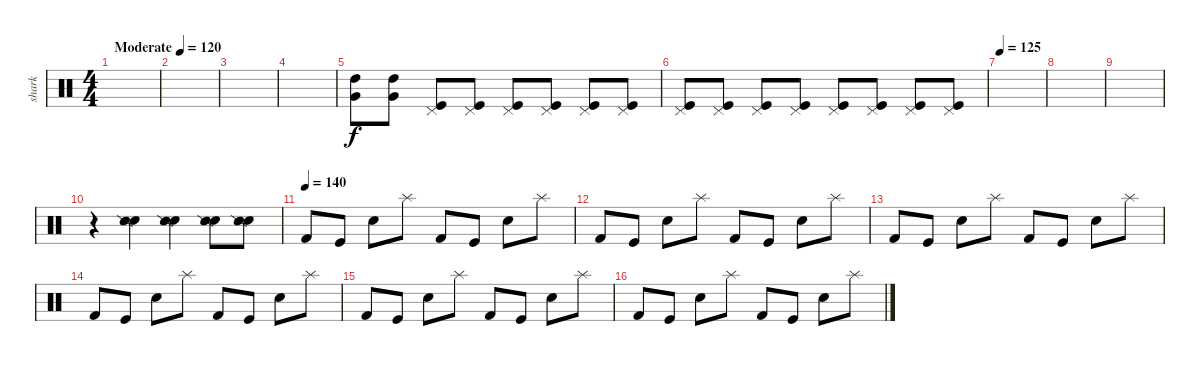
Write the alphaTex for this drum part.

\track ("shark" "shark") {instrument percussion}
\staff {score}
\articulation defaults
\ts (4 4)
\tempo (120 "Moderate")
\clef neutral
\ks c
|
|
|
|
("High Tom (hit)" "Very Low Tom (hit)").8 ("High Tom (hit)" "Very Low Tom (hit)").8 ("Kick (hit)" "Pedal Hi-Hat (hit)").8 ("Kick (hit)" "Pedal Hi-Hat (hit)").8 ("Kick (hit)" "Pedal Hi-Hat (hit)").8 ("Kick (hit)" "Pedal Hi-Hat (hit)").8 ("Kick (hit)" "Pedal Hi-Hat (hit)").8 ("Kick (hit)" "Pedal Hi-Hat (hit)").8 |
("Kick (hit)" "Pedal Hi-Hat (hit)").8 ("Kick (hit)" "Pedal Hi-Hat (hit)").8 ("Kick (hit)" "Pedal Hi-Hat (hit)").8 ("Kick (hit)" "Pedal Hi-Hat (hit)").8 ("Kick (hit)" "Pedal Hi-Hat (hit)").8 ("Kick (hit)" "Pedal Hi-Hat (hit)").8 ("Kick (hit)" "Pedal Hi-Hat (hit)").8 ("Kick (hit)" "Pedal Hi-Hat (hit)").8 |
\tempo 125
|
|
|
r.4 ("Snare (hit) 2" "Snare (side stick) 2").4 ("Snare (hit) 2" "Snare (side stick) 2").4 ("Snare (hit) 2" "Snare (side stick) 2").8 ("Snare (hit) 2" "Snare (side stick) 2").8 |
\tempo (140)
"Kick (hit) 2".8 "Kick (hit)".8 "Snare (hit) 2".8 "Splash (hit)".8 "Kick (hit) 2".8 "Kick (hit)".8 "Snare (hit) 2".8 "Splash (hit)".8 |
"Kick (hit) 2".8 "Kick (hit)".8 "Snare (hit) 2".8 "Splash (hit)".8 "Kick (hit) 2".8 "Kick (hit)".8 "Snare (hit) 2".8 "Splash (hit)".8 |
"Kick (hit) 2".8 "Kick (hit)".8 "Snare (hit) 2".8 "Splash (hit)".8 "Kick (hit) 2".8 "Kick (hit)".8 "Snare (hit) 2".8 "Splash (hit)".8 |
"Kick (hit) 2".8 "Kick (hit)".8 "Snare (hit) 2".8 "Splash (hit)".8 "Kick (hit) 2".8 "Kick (hit)".8 "Snare (hit) 2".8 "Splash (hit)".8 |
"Kick (hit) 2".8 "Kick (hit)".8 "Snare (hit) 2".8 "Splash (hit)".8 "Kick (hit) 2".8 "Kick (hit)".8 "Snare (hit) 2".8 "Splash (hit)".8 |
"Kick (hit) 2".8 "Kick (hit)".8 "Snare (hit) 2".8 "Splash (hit)".8 "Kick (hit) 2".8 "Kick (hit)".8 "Snare (hit) 2".8 "Splash (hit)".8
